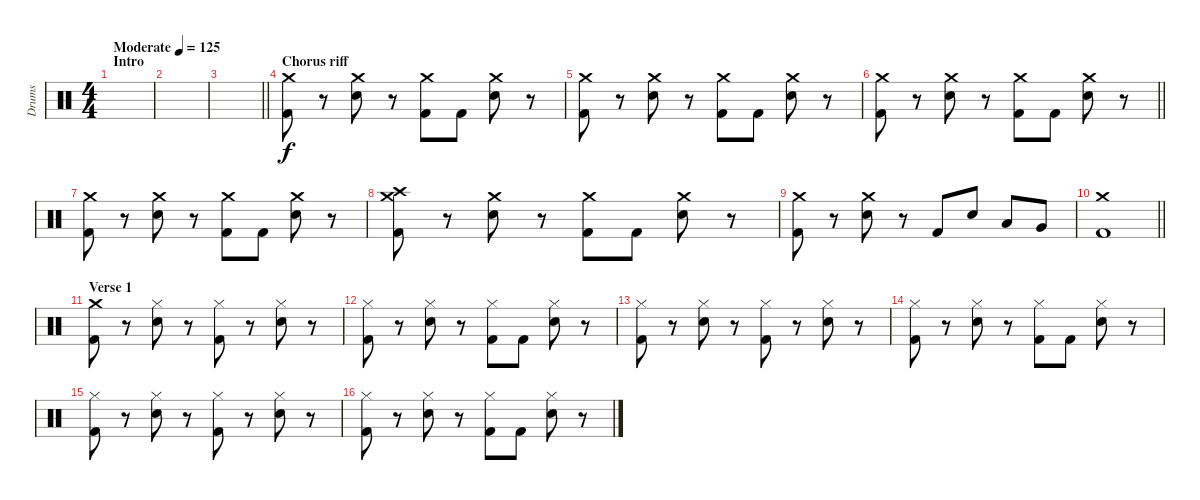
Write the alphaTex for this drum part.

\track ("Drums" "Drums") {instrument percussion}
\staff {score}
\articulation defaults
\ts (4 4)
\section ("" "Intro")
\tempo (125 "Moderate")
\clef neutral
\ks c
|
|
\barLineRight lightlight
|
\section ("" "Chorus riff")
("Crash medium (hit)" "Kick (hit) 2").8 r.8 ("Crash medium (hit)" "Electric Snare (hit)").8 r.8 ("Crash medium (hit)" "Kick (hit) 2").8 "Kick (hit) 2".8 ("Crash medium (hit)" "Electric Snare (hit)").8 r.8 |
("Crash medium (hit)" "Kick (hit) 2").8 r.8 ("Crash medium (hit)" "Electric Snare (hit)").8 r.8 ("Crash medium (hit)" "Kick (hit) 2").8 "Kick (hit) 2".8 ("Crash medium (hit)" "Electric Snare (hit)").8 r.8 |
\barLineRight lightlight
("Crash medium (hit)" "Kick (hit) 2").8 r.8 ("Crash medium (hit)" "Electric Snare (hit)").8 r.8 ("Crash medium (hit)" "Kick (hit) 2").8 "Kick (hit) 2".8 ("Crash medium (hit)" "Electric Snare (hit)").8 r.8 |
("Crash medium (hit)" "Kick (hit) 2").8 r.8 ("Crash medium (hit)" "Electric Snare (hit)").8 r.8 ("Crash medium (hit)" "Kick (hit) 2").8 "Kick (hit) 2".8 ("Crash medium (hit)" "Electric Snare (hit)").8 r.8 |
("Crash high (hit)" "Crash medium (hit)" "Kick (hit) 2").8 r.8 ("Crash medium (hit)" "Electric Snare (hit)").8 r.8 ("Crash medium (hit)" "Kick (hit) 2").8 "Kick (hit) 2".8 ("Crash medium (hit)" "Electric Snare (hit)").8 r.8 |
("Crash medium (hit)" "Kick (hit) 2").8 r.8 ("Crash medium (hit)" "Electric Snare (hit)").8 r.8 "Kick (hit) 2".8 "Electric Snare (hit)".8 "Low Tom (hit)".8 "Very Low Tom (hit)".8 |
\barLineRight lightlight
("Crash medium (hit)" "Kick (hit) 2").1 |
\section ("" "Verse 1")
("Crash medium (hit)" "Kick (hit) 2").8 r.8 ("Hi-Hat (closed)" "Electric Snare (hit)").8 r.8 ("Hi-Hat (closed)" "Kick (hit) 2").8 r.8 ("Hi-Hat (closed)" "Electric Snare (hit)").8 r.8 |
("Hi-Hat (closed)" "Kick (hit) 2").8 r.8 ("Hi-Hat (closed)" "Electric Snare (hit)").8 r.8 ("Hi-Hat (closed)" "Kick (hit) 2").8 "Kick (hit) 2".8 ("Hi-Hat (closed)" "Electric Snare (hit)").8 r.8 |
("Hi-Hat (closed)" "Kick (hit) 2").8 r.8 ("Hi-Hat (closed)" "Electric Snare (hit)").8 r.8 ("Hi-Hat (closed)" "Kick (hit) 2").8 r.8 ("Hi-Hat (closed)" "Electric Snare (hit)").8 r.8 |
("Hi-Hat (closed)" "Kick (hit) 2").8 r.8 ("Hi-Hat (closed)" "Electric Snare (hit)").8 r.8 ("Hi-Hat (closed)" "Kick (hit) 2").8 "Kick (hit) 2".8 ("Hi-Hat (closed)" "Electric Snare (hit)").8 r.8 |
("Hi-Hat (closed)" "Kick (hit) 2").8 r.8 ("Hi-Hat (closed)" "Electric Snare (hit)").8 r.8 ("Hi-Hat (closed)" "Kick (hit) 2").8 r.8 ("Hi-Hat (closed)" "Electric Snare (hit)").8 r.8 |
("Hi-Hat (closed)" "Kick (hit) 2").8 r.8 ("Hi-Hat (closed)" "Electric Snare (hit)").8 r.8 ("Hi-Hat (closed)" "Kick (hit) 2").8 "Kick (hit) 2".8 ("Hi-Hat (closed)" "Electric Snare (hit)").8 r.8
